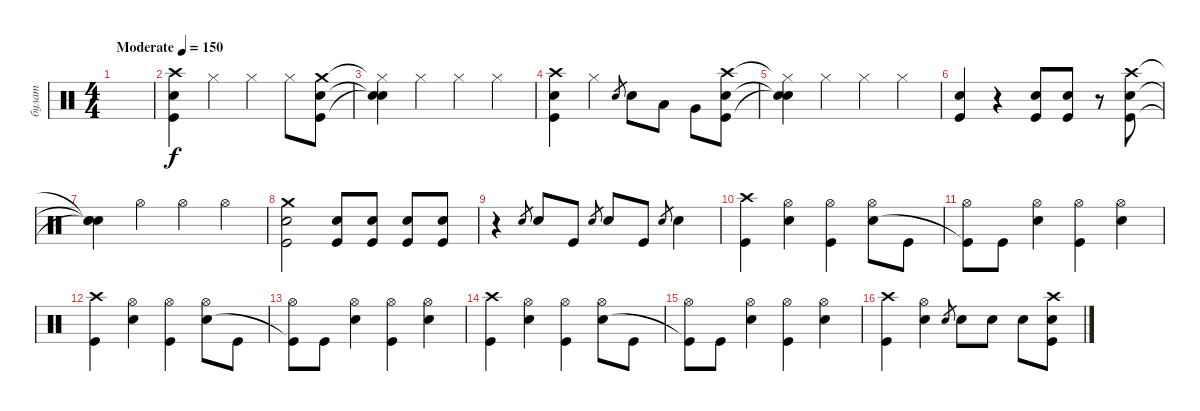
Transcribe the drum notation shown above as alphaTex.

\track ("булат" "булат") {instrument percussion}
\staff {score}
\articulation defaults
\ts (4 4)
\tempo (150 "Moderate")
\clef neutral
\ks c
|
("Crash high (hit)" "Kick (hit)" "Snare (hit) 2").4 "Hi-Hat (closed)".4 "Hi-Hat (closed)".4 "Hi-Hat (closed)".8 ("Crash medium (hit)" "Snare (hit) 2" "Kick (hit)").8 |
("Hi-Hat (closed)"{t} "Snare (hit)"{t} "Snare (hit)"{t}).4 "Hi-Hat (closed)".4 "Hi-Hat (closed)".4 "Hi-Hat (closed)".4 |
("Crash high (hit)" "Snare (hit) 2" "Kick (hit)").4 "Hi-Hat (closed)".4 "Snare (hit) 2".8{gr} "Snare (hit) 2".8 "Low Tom (hit)".8 "Very Low Tom (hit)".8 ("Crash high (hit)" "Snare (hit) 2" "Kick (hit)").8 |
("Hi-Hat (closed)"{t} "Snare (hit)"{t} "Snare (hit)"{t}).4 "Hi-Hat (closed)".4 "Hi-Hat (closed)".4 "Hi-Hat (closed)".4 |
("Snare (hit) 2" "Kick (hit)").4 r.4 ("Snare (hit) 2" "Kick (hit)").8 ("Snare (hit) 2" "Kick (hit)").8 r.8 ("Crash high (hit)" "Snare (hit) 2" "Kick (hit)").8 |
("Snare (hit)"{t} "Snare (hit)"{t} "Snare (hit)"{t}).4 "Hi-Hat (open)".4 "Hi-Hat (open)".4 "Hi-Hat (open)".4 |
("Crash medium (hit)" "Snare (hit) 2" "Kick (hit)").2 ("Snare (hit) 2" "Kick (hit)").8 ("Snare (hit) 2" "Kick (hit)").8 ("Snare (hit) 2" "Kick (hit)").8 ("Snare (hit) 2" "Kick (hit)").8 |
r.4 "Snare (hit) 2".8{gr} "Snare (hit) 2".8 "Kick (hit)".8 "Snare (hit) 2".8{gr} "Snare (hit) 2".8 "Kick (hit)".8 "Snare (hit) 2".8{gr} "Snare (hit) 2".4 |
("Crash high (hit)" "Kick (hit)").4 ("Hi-Hat (open)" "Snare (hit) 2").4 ("Hi-Hat (open)" "Kick (hit)").4 ("Hi-Hat (open)" "Snare (hit) 2").8 "Kick (hit)".8 |
("Hi-Hat (open)" "Kick (hit)"{t}).8 "Kick (hit)".8 ("Hi-Hat (open)" "Snare (hit) 2").4 ("Hi-Hat (open)" "Kick (hit)").4 ("Hi-Hat (open)" "Snare (hit) 2").4 |
("Crash high (hit)" "Kick (hit)").4 ("Hi-Hat (open)" "Snare (hit) 2").4 ("Hi-Hat (open)" "Kick (hit)").4 ("Hi-Hat (open)" "Snare (hit) 2").8 "Kick (hit)".8 |
("Hi-Hat (open)" "Kick (hit)"{t}).8 "Kick (hit)".8 ("Hi-Hat (open)" "Snare (hit) 2").4 ("Hi-Hat (open)" "Kick (hit)").4 ("Hi-Hat (open)" "Snare (hit) 2").4 |
("Crash high (hit)" "Kick (hit)").4 ("Hi-Hat (open)" "Snare (hit) 2").4 ("Hi-Hat (open)" "Kick (hit)").4 ("Hi-Hat (open)" "Snare (hit) 2").8 "Kick (hit)".8 |
("Hi-Hat (open)" "Kick (hit)"{t}).8 "Kick (hit)".8 ("Hi-Hat (open)" "Snare (hit) 2").4 ("Hi-Hat (open)" "Kick (hit)").4 ("Hi-Hat (open)" "Snare (hit) 2").4 |
("Crash high (hit)" "Kick (hit)").4 ("Hi-Hat (open)" "Snare (hit) 2").4 "Snare (hit) 2".8{gr} "Snare (hit) 2".8 "Snare (hit) 2".8 "Snare (hit) 2".8 ("Crash high (hit)" "Snare (hit) 2" "Kick (hit)").8
